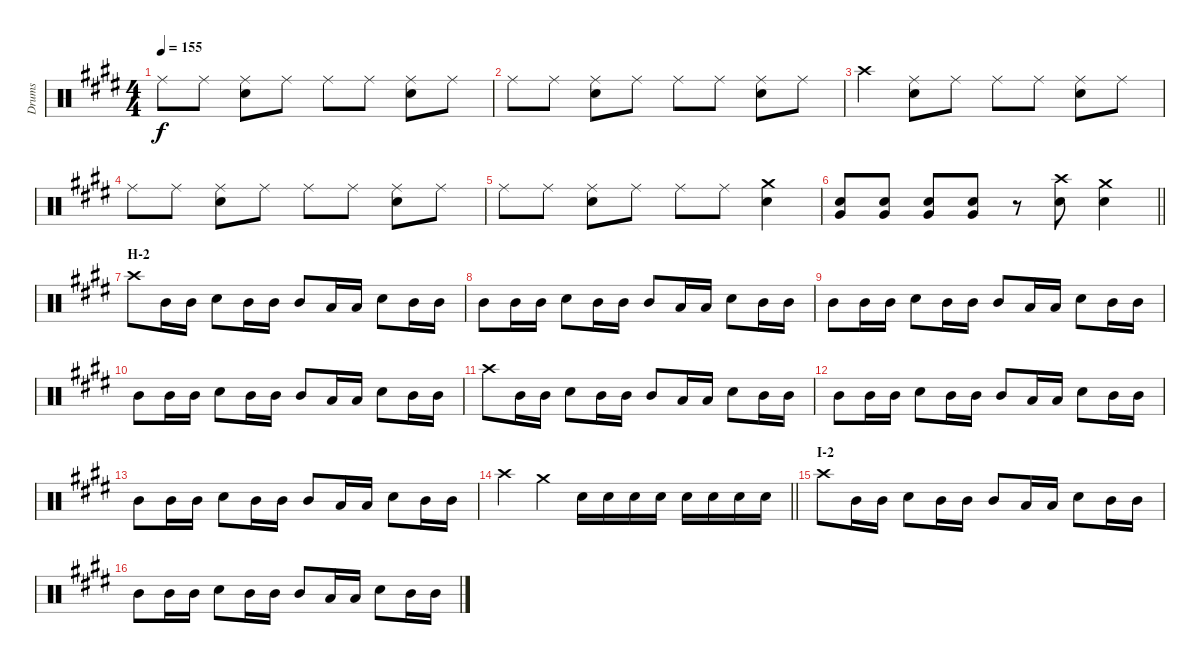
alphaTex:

\track ("Drums" "Drums") {instrument percussion}
\staff {score}
\articulation defaults
\ts (4 4)
\tempo 155
\clef neutral
\ks e "Ride (middle)".8{dy f} "Ride (middle)".8
("Ride (middle)" "Snare (hit) 2").8 "Ride (middle)".8 "Ride (middle)".8 "Ride (middle)".8 ("Ride (middle)" "Snare (hit) 2").8 "Ride (middle)".8 |
"Ride (middle)".8 "Ride (middle)".8 ("Ride (middle)" "Snare (hit) 2").8 "Ride (middle)".8 "Ride (middle)".8 "Ride (middle)".8 ("Ride (middle)" "Snare (hit) 2").8 "Ride (middle)".8 |
"Crash high (hit)".4 ("Ride (middle)" "Snare (hit) 2").8 "Ride (middle)".8 "Ride (middle)".8 "Ride (middle)".8 ("Ride (middle)" "Snare (hit) 2").8 "Ride (middle)".8 |
"Ride (middle)".8 "Ride (middle)".8 ("Ride (middle)" "Snare (hit) 2").8 "Ride (middle)".8 "Ride (middle)".8 "Ride (middle)".8 ("Ride (middle)" "Snare (hit) 2").8 "Ride (middle)".8 |
"Ride (middle)".8 "Ride (middle)".8 ("Ride (middle)" "Snare (hit) 2").8 "Ride (middle)".8 "Ride (middle)".8 "Ride (middle)".8 ("Crash medium (hit)" "Snare (hit) 2").4 |
\barLineRight lightlight
("Snare (hit) 2" "Very Low Tom (hit)").8 ("Snare (hit) 2" "Very Low Tom (hit)").8 ("Snare (hit) 2" "Very Low Tom (hit)").8 ("Snare (hit) 2" "Very Low Tom (hit)").8 r.8 ("Crash high (hit)" "Snare (hit) 2").8 ("Crash medium (hit)" "Snare (hit) 2").4 |
\section ("" "H-2")
"Crash high (hit)".8 "Mid Tom (hit)".16 "Mid Tom (hit)".16 "Snare (hit) 2".8 "Mid Tom (hit)".16 "Mid Tom (hit)".16 "Mid Tom (hit)".8 "Low Tom (hit)".16 "Low Tom (hit)".16 "Snare (hit) 2".8 "Mid Tom (hit)".16 "Mid Tom (hit)".16 |
"Mid Tom (hit)".8 "Mid Tom (hit)".16 "Mid Tom (hit)".16 "Snare (hit) 2".8 "Mid Tom (hit)".16 "Mid Tom (hit)".16 "Mid Tom (hit)".8 "Low Tom (hit)".16 "Low Tom (hit)".16 "Snare (hit) 2".8 "Mid Tom (hit)".16 "Mid Tom (hit)".16 |
"Mid Tom (hit)".8 "Mid Tom (hit)".16 "Mid Tom (hit)".16 "Snare (hit) 2".8 "Mid Tom (hit)".16 "Mid Tom (hit)".16 "Mid Tom (hit)".8 "Low Tom (hit)".16 "Low Tom (hit)".16 "Snare (hit) 2".8 "Mid Tom (hit)".16 "Mid Tom (hit)".16 |
"Mid Tom (hit)".8 "Mid Tom (hit)".16 "Mid Tom (hit)".16 "Snare (hit) 2".8 "Mid Tom (hit)".16 "Mid Tom (hit)".16 "Mid Tom (hit)".8 "Low Tom (hit)".16 "Low Tom (hit)".16 "Snare (hit) 2".8 "Mid Tom (hit)".16 "Mid Tom (hit)".16 |
"Crash high (hit)".8 "Mid Tom (hit)".16 "Mid Tom (hit)".16 "Snare (hit) 2".8 "Mid Tom (hit)".16 "Mid Tom (hit)".16 "Mid Tom (hit)".8 "Low Tom (hit)".16 "Low Tom (hit)".16 "Snare (hit) 2".8 "Mid Tom (hit)".16 "Mid Tom (hit)".16 |
"Mid Tom (hit)".8 "Mid Tom (hit)".16 "Mid Tom (hit)".16 "Snare (hit) 2".8 "Mid Tom (hit)".16 "Mid Tom (hit)".16 "Mid Tom (hit)".8 "Low Tom (hit)".16 "Low Tom (hit)".16 "Snare (hit) 2".8 "Mid Tom (hit)".16 "Mid Tom (hit)".16 |
"Mid Tom (hit)".8 "Mid Tom (hit)".16 "Mid Tom (hit)".16 "Snare (hit) 2".8 "Mid Tom (hit)".16 "Mid Tom (hit)".16 "Mid Tom (hit)".8 "Low Tom (hit)".16 "Low Tom (hit)".16 "Snare (hit) 2".8 "Mid Tom (hit)".16 "Mid Tom (hit)".16 |
\barLineRight lightlight "Crash high (hit)".4 "Crash medium (hit)".4 "Snare (hit) 2".16 "Snare (hit) 2".16 "Snare (hit) 2".16 "Snare (hit) 2".16 "Snare (hit) 2".16 "Snare (hit) 2".16 "Snare (hit) 2".16 "Snare (hit) 2".16
|
\section ("" "I-2")
"Crash high (hit)".8 "Mid Tom (hit)".16 "Mid Tom (hit)".16 "Snare (hit) 2".8 "Mid Tom (hit)".16 "Mid Tom (hit)".16 "Mid Tom (hit)".8 "Low Tom (hit)".16 "Low Tom (hit)".16 "Snare (hit) 2".8 "Mid Tom (hit)".16 "Mid Tom (hit)".16 |
"Mid Tom (hit)".8 "Mid Tom (hit)".16 "Mid Tom (hit)".16 "Snare (hit) 2".8 "Mid Tom (hit)".16 "Mid Tom (hit)".16 "Mid Tom (hit)".8 "Low Tom (hit)".16 "Low Tom (hit)".16 "Snare (hit) 2".8 "Mid Tom (hit)".16 "Mid Tom (hit)".16
